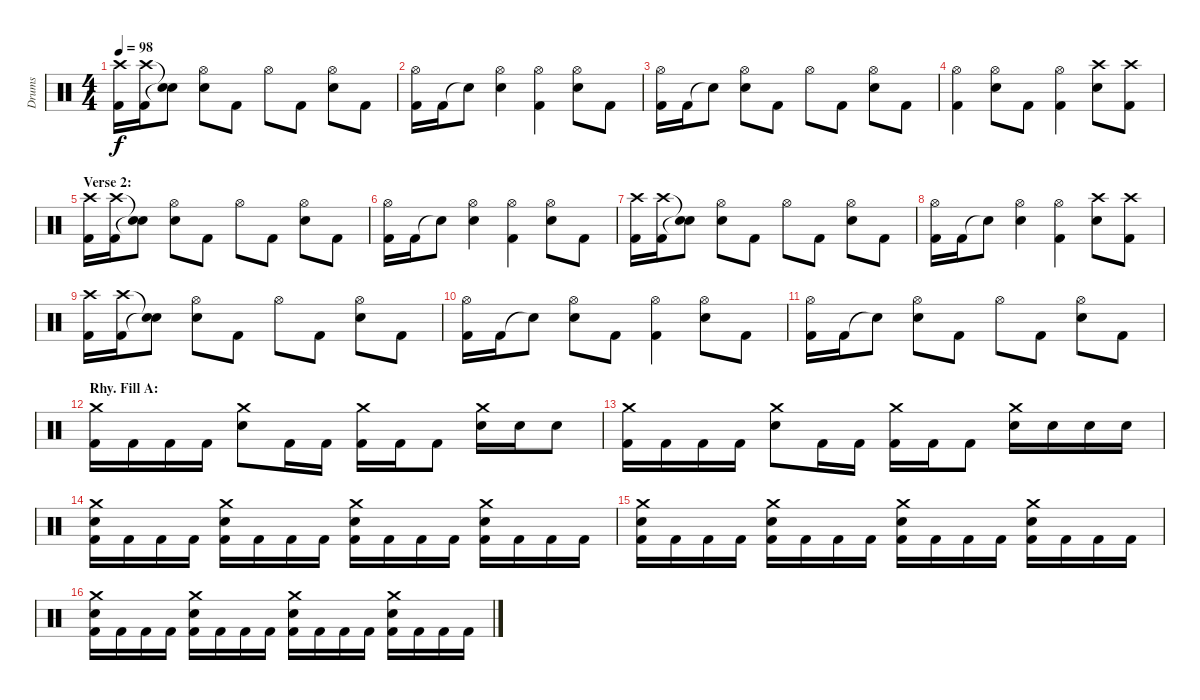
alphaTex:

\track ("Drums" "Drums") {instrument percussion}
\staff {score}
\articulation defaults
\ts (4 4)
\tempo 98
\clef neutral
\ks c
("Crash high (hit)" "Kick (hit) 2").16{dy f} ("Crash high (hit)" "Kick (hit) 2").16 ("Snare (hit)"{t} "Snare (hit)"{t}).8 ("Hi-Hat (open)" "Electric Snare (hit)").8 "Kick (hit) 2".8 "Hi-Hat (open)".8 "Kick (hit) 2".8 ("Hi-Hat (open)" "Electric Snare (hit)").8 "Kick (hit) 2".8 |
("Hi-Hat (open)" "Kick (hit) 2").16 "Kick (hit) 2".16 "Snare (hit)"{t}.8 ("Hi-Hat (open)" "Electric Snare (hit)").4 ("Hi-Hat (open)" "Kick (hit) 2").4 ("Hi-Hat (open)" "Electric Snare (hit)").8 "Kick (hit) 2".8 |
("Hi-Hat (open)" "Kick (hit) 2").16 "Kick (hit) 2".16 "Snare (hit)"{t}.8 ("Hi-Hat (open)" "Electric Snare (hit)").8 "Kick (hit) 2".8 "Hi-Hat (open)".8 "Kick (hit) 2".8 ("Hi-Hat (open)" "Electric Snare (hit)").8 "Kick (hit) 2".8 |
("Hi-Hat (open)" "Kick (hit) 2").4 ("Hi-Hat (open)" "Electric Snare (hit)").8 "Kick (hit) 2".8 ("Hi-Hat (open)" "Kick (hit) 2").4 ("Crash high (hit)" "Electric Snare (hit)").8 ("Crash high (hit)" "Kick (hit) 2").8 |
\section ("" "Verse 2:")
("Crash high (hit)" "Kick (hit) 2").16 ("Crash high (hit)" "Kick (hit) 2").16 ("Snare (hit)"{t} "Snare (hit)"{t}).8 ("Hi-Hat (open)" "Electric Snare (hit)").8 "Kick (hit) 2".8 "Hi-Hat (open)".8 "Kick (hit) 2".8 ("Hi-Hat (open)" "Electric Snare (hit)").8 "Kick (hit) 2".8 |
("Hi-Hat (open)" "Kick (hit) 2").16 "Kick (hit) 2".16 "Snare (hit)"{t}.8 ("Hi-Hat (open)" "Electric Snare (hit)").4 ("Hi-Hat (open)" "Kick (hit) 2").4 ("Hi-Hat (open)" "Electric Snare (hit)").8 "Kick (hit) 2".8 |
("Crash high (hit)" "Kick (hit) 2").16 ("Crash high (hit)" "Kick (hit) 2").16 ("Snare (hit)"{t} "Snare (hit)"{t}).8 ("Hi-Hat (open)" "Electric Snare (hit)").8 "Kick (hit) 2".8 "Hi-Hat (open)".8 "Kick (hit) 2".8 ("Hi-Hat (open)" "Electric Snare (hit)").8 "Kick (hit) 2".8 |
("Hi-Hat (open)" "Kick (hit) 2").16 "Kick (hit) 2".16 "Snare (hit)"{t}.8 ("Hi-Hat (open)" "Electric Snare (hit)").4 ("Hi-Hat (open)" "Kick (hit) 2").4 ("Crash high (hit)" "Electric Snare (hit)").8 ("Crash high (hit)" "Kick (hit) 2").8 |
("Crash high (hit)" "Kick (hit) 2").16 ("Crash high (hit)" "Kick (hit) 2").16 ("Snare (hit)"{t} "Snare (hit)"{t}).8 ("Hi-Hat (open)" "Electric Snare (hit)").8 "Kick (hit) 2".8 "Hi-Hat (open)".8 "Kick (hit) 2".8 ("Hi-Hat (open)" "Electric Snare (hit)").8 "Kick (hit) 2".8 |
("Hi-Hat (open)" "Kick (hit) 2").16 "Kick (hit) 2".16 "Snare (hit)"{t}.8 ("Hi-Hat (open)" "Electric Snare (hit)").8 "Kick (hit) 2".8 ("Hi-Hat (open)" "Kick (hit) 2").4 ("Hi-Hat (open)" "Electric Snare (hit)").8 "Kick (hit) 2".8 |
("Hi-Hat (open)" "Kick (hit) 2").16 "Kick (hit) 2".16 "Snare (hit)"{t}.8 ("Hi-Hat (open)" "Electric Snare (hit)").8 "Kick (hit) 2".8 "Hi-Hat (open)".8 "Kick (hit) 2".8 ("Hi-Hat (open)" "Electric Snare (hit)").8 "Kick (hit) 2".8 |
\section ("" "Rhy. Fill A:")
("Crash medium (hit)" "Kick (hit) 2").16 "Kick (hit) 2".16 "Kick (hit) 2".16 "Kick (hit) 2".16 ("Crash medium (hit)" "Electric Snare (hit)").8 "Kick (hit) 2".16 "Kick (hit) 2".16 ("Crash medium (hit)" "Kick (hit) 2").16 "Kick (hit) 2".16 "Kick (hit) 2".8 ("Crash medium (hit)" "Electric Snare (hit)").16 "Electric Snare (hit)".16 "Electric Snare (hit)".8 |
("Crash medium (hit)" "Kick (hit) 2").16 "Kick (hit) 2".16 "Kick (hit) 2".16 "Kick (hit) 2".16 ("Crash medium (hit)" "Electric Snare (hit)").8 "Kick (hit) 2".16 "Kick (hit) 2".16 ("Crash medium (hit)" "Kick (hit) 2").16 "Kick (hit) 2".16 "Kick (hit) 2".8 ("Crash medium (hit)" "Electric Snare (hit)").16 "Electric Snare (hit)".16 "Electric Snare (hit)".16 "Electric Snare (hit)".16 |
("Crash medium (hit)" "Electric Snare (hit)" "Kick (hit) 2").16 "Kick (hit) 2".16 "Kick (hit) 2".16 "Kick (hit) 2".16 ("Crash medium (hit)" "Electric Snare (hit)" "Kick (hit) 2").16 "Kick (hit) 2".16 "Kick (hit) 2".16 "Kick (hit) 2".16 ("Crash medium (hit)" "Electric Snare (hit)" "Kick (hit) 2").16 "Kick (hit) 2".16 "Kick (hit) 2".16 "Kick (hit) 2".16 ("Crash medium (hit)" "Electric Snare (hit)" "Kick (hit) 2").16 "Kick (hit) 2".16 "Kick (hit) 2".16 "Kick (hit) 2".16 |
("Crash medium (hit)" "Electric Snare (hit)" "Kick (hit) 2").16 "Kick (hit) 2".16 "Kick (hit) 2".16 "Kick (hit) 2".16 ("Crash medium (hit)" "Electric Snare (hit)" "Kick (hit) 2").16 "Kick (hit) 2".16 "Kick (hit) 2".16 "Kick (hit) 2".16 ("Crash medium (hit)" "Electric Snare (hit)" "Kick (hit) 2").16 "Kick (hit) 2".16 "Kick (hit) 2".16 "Kick (hit) 2".16 ("Crash medium (hit)" "Electric Snare (hit)" "Kick (hit) 2").16 "Kick (hit) 2".16 "Kick (hit) 2".16 "Kick (hit) 2".16 |
("Crash medium (hit)" "Electric Snare (hit)" "Kick (hit) 2").16 "Kick (hit) 2".16 "Kick (hit) 2".16 "Kick (hit) 2".16 ("Crash medium (hit)" "Electric Snare (hit)" "Kick (hit) 2").16 "Kick (hit) 2".16 "Kick (hit) 2".16 "Kick (hit) 2".16 ("Crash medium (hit)" "Electric Snare (hit)" "Kick (hit) 2").16 "Kick (hit) 2".16 "Kick (hit) 2".16 "Kick (hit) 2".16 ("Crash medium (hit)" "Electric Snare (hit)" "Kick (hit) 2").16 "Kick (hit) 2".16 "Kick (hit) 2".16 "Kick (hit) 2".16
